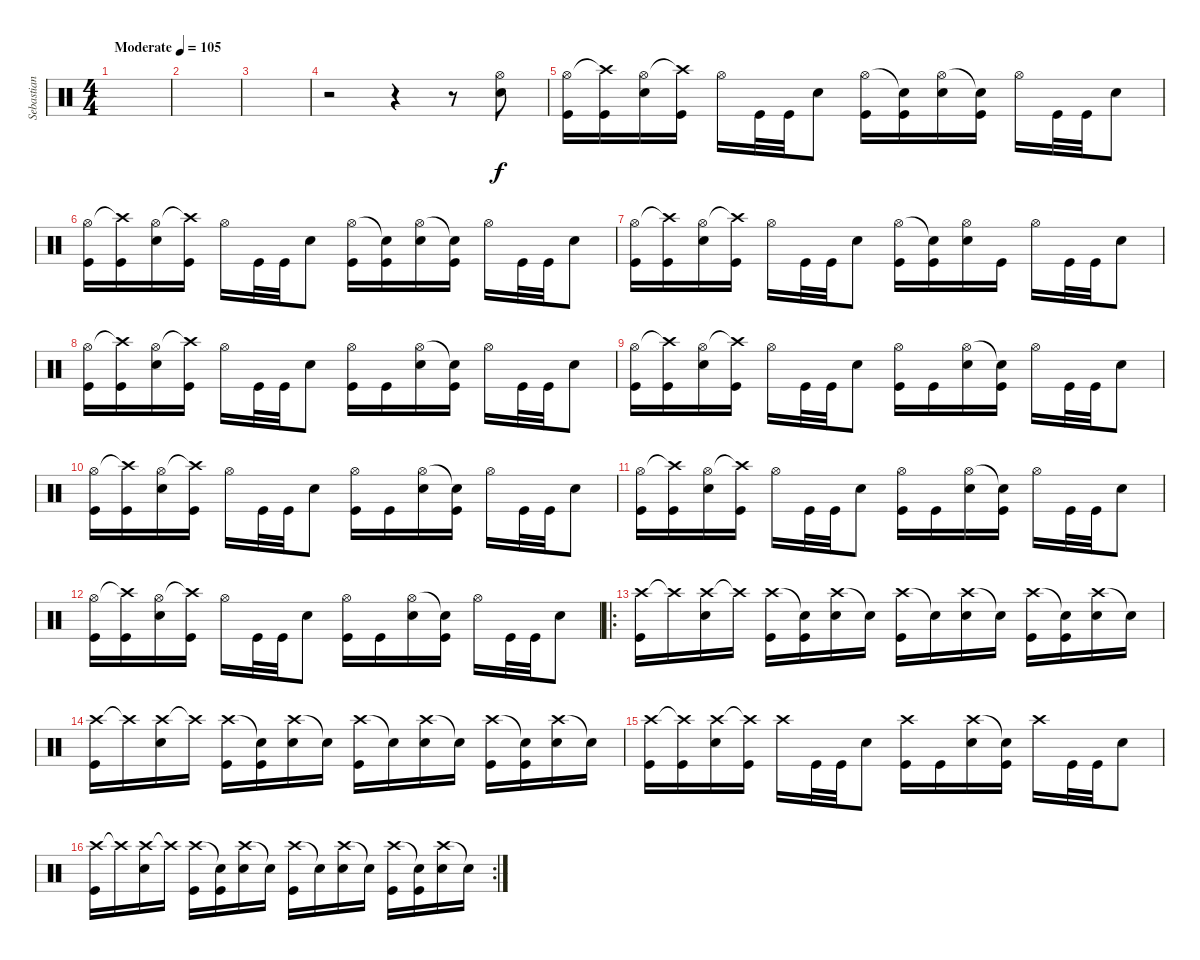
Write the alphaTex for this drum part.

\track ("Sebastian Grainger" "Sebastian ") {instrument percussion}
\staff {score}
\articulation defaults
\ts (4 4)
\tempo (105 "Moderate")
\clef neutral
\ks c
|
|
|
r.2 r.4 r.8 ("Hi-Hat (open)" "Snare (hit) 2").8 |
("Hi-Hat (open)" "Kick (hit)").16 ("Crash high (hit)"{t} "Kick (hit)").16 ("Hi-Hat (open)" "Snare (hit) 2").16 ("Crash high (hit)"{t} "Kick (hit)").16 "Hi-Hat (open)".16 "Kick (hit)".32 "Kick (hit)".32 "Snare (hit) 2".8 ("Hi-Hat (open)" "Kick (hit)").16 ("Snare (hit)"{t} "Kick (hit)").16 ("Hi-Hat (open)" "Snare (hit) 2").16 ("Snare (hit)"{t} "Kick (hit)").16 "Hi-Hat (open)".16 "Kick (hit)".32 "Kick (hit)".32 "Snare (hit) 2".8 |
("Hi-Hat (open)" "Kick (hit)").16 ("Crash high (hit)"{t} "Kick (hit)").16 ("Hi-Hat (open)" "Snare (hit) 2").16 ("Crash high (hit)"{t} "Kick (hit)").16 "Hi-Hat (open)".16 "Kick (hit)".32 "Kick (hit)".32 "Snare (hit) 2".8 ("Hi-Hat (open)" "Kick (hit)").16 ("Snare (hit)"{t} "Kick (hit)").16 ("Hi-Hat (open)" "Snare (hit) 2").16 ("Snare (hit)"{t} "Kick (hit)").16 "Hi-Hat (open)".16 "Kick (hit)".32 "Kick (hit)".32 "Snare (hit) 2".8 |
("Hi-Hat (open)" "Kick (hit)").16 ("Crash high (hit)"{t} "Kick (hit)").16 ("Hi-Hat (open)" "Snare (hit) 2").16 ("Crash high (hit)"{t} "Kick (hit)").16 "Hi-Hat (open)".16 "Kick (hit)".32 "Kick (hit)".32 "Snare (hit) 2".8 ("Hi-Hat (open)" "Kick (hit)").16 ("Snare (hit)"{t} "Kick (hit)").16 ("Hi-Hat (open)" "Snare (hit) 2").16 "Kick (hit)".16 "Hi-Hat (open)".16 "Kick (hit)".32 "Kick (hit)".32 "Snare (hit) 2".8 |
("Hi-Hat (open)" "Kick (hit)").16 ("Crash high (hit)"{t} "Kick (hit)").16 ("Hi-Hat (open)" "Snare (hit) 2").16 ("Crash high (hit)"{t} "Kick (hit)").16 "Hi-Hat (open)".16 "Kick (hit)".32 "Kick (hit)".32 "Snare (hit) 2".8 ("Hi-Hat (open)" "Kick (hit)").16 "Kick (hit)".16 ("Hi-Hat (open)" "Snare (hit) 2").16 ("Snare (hit)"{t} "Kick (hit)").16 "Hi-Hat (open)".16 "Kick (hit)".32 "Kick (hit)".32 "Snare (hit) 2".8 |
("Hi-Hat (open)" "Kick (hit)").16 ("Crash high (hit)"{t} "Kick (hit)").16 ("Hi-Hat (open)" "Snare (hit) 2").16 ("Crash high (hit)"{t} "Kick (hit)").16 "Hi-Hat (open)".16 "Kick (hit)".32 "Kick (hit)".32 "Snare (hit) 2".8 ("Hi-Hat (open)" "Kick (hit)").16 "Kick (hit)".16 ("Hi-Hat (open)" "Snare (hit) 2").16 ("Snare (hit)"{t} "Kick (hit)").16 "Hi-Hat (open)".16 "Kick (hit)".32 "Kick (hit)".32 "Snare (hit) 2".8 |
("Hi-Hat (open)" "Kick (hit)").16 ("Crash high (hit)"{t} "Kick (hit)").16 ("Hi-Hat (open)" "Snare (hit) 2").16 ("Crash high (hit)"{t} "Kick (hit)").16 "Hi-Hat (open)".16 "Kick (hit)".32 "Kick (hit)".32 "Snare (hit) 2".8 ("Hi-Hat (open)" "Kick (hit)").16 "Kick (hit)".16 ("Hi-Hat (open)" "Snare (hit) 2").16 ("Snare (hit)"{t} "Kick (hit)").16 "Hi-Hat (open)".16 "Kick (hit)".32 "Kick (hit)".32 "Snare (hit) 2".8 |
("Hi-Hat (open)" "Kick (hit)").16 ("Crash high (hit)"{t} "Kick (hit)").16 ("Hi-Hat (open)" "Snare (hit) 2").16 ("Crash high (hit)"{t} "Kick (hit)").16 "Hi-Hat (open)".16 "Kick (hit)".32 "Kick (hit)".32 "Snare (hit) 2".8 ("Hi-Hat (open)" "Kick (hit)").16 "Kick (hit)".16 ("Hi-Hat (open)" "Snare (hit) 2").16 ("Snare (hit)"{t} "Kick (hit)").16 "Hi-Hat (open)".16 "Kick (hit)".32 "Kick (hit)".32 "Snare (hit) 2".8 |
("Hi-Hat (open)" "Kick (hit)").16 ("Crash high (hit)"{t} "Kick (hit)").16 ("Hi-Hat (open)" "Snare (hit) 2").16 ("Crash high (hit)"{t} "Kick (hit)").16 "Hi-Hat (open)".16 "Kick (hit)".32 "Kick (hit)".32 "Snare (hit) 2".8 ("Hi-Hat (open)" "Kick (hit)").16 "Kick (hit)".16 ("Hi-Hat (open)" "Snare (hit) 2").16 ("Snare (hit)"{t} "Kick (hit)").16 "Hi-Hat (open)".16 "Kick (hit)".32 "Kick (hit)".32 "Snare (hit) 2".8 |
\ro
("Crash high (hit)" "Kick (hit)").16 "Crash high (hit)"{t}.16 ("Crash high (hit)" "Snare (hit) 2").16 "Crash high (hit)"{t}.16 ("Crash high (hit)" "Kick (hit)").16 ("Snare (hit)"{t} "Kick (hit)").16 ("Crash high (hit)" "Snare (hit) 2").16 "Snare (hit)"{t}.16 ("Crash high (hit)" "Kick (hit)").16 "Snare (hit)"{t}.16 ("Crash high (hit)" "Snare (hit) 2").16 "Snare (hit)"{t}.16 ("Crash high (hit)" "Kick (hit)").16 ("Snare (hit)"{t} "Kick (hit)").16 ("Crash high (hit)" "Snare (hit) 2").16 "Snare (hit)"{t}.16 |
("Crash high (hit)" "Kick (hit)").16 "Crash high (hit)"{t}.16 ("Crash high (hit)" "Snare (hit) 2").16 "Crash high (hit)"{t}.16 ("Crash high (hit)" "Kick (hit)").16 ("Snare (hit)"{t} "Kick (hit)").16 ("Crash high (hit)" "Snare (hit) 2").16 "Snare (hit)"{t}.16 ("Crash high (hit)" "Kick (hit)").16 "Snare (hit)"{t}.16 ("Crash high (hit)" "Snare (hit) 2").16 "Snare (hit)"{t}.16 ("Crash high (hit)" "Kick (hit)").16 ("Snare (hit)"{t} "Kick (hit)").16 ("Crash high (hit)" "Snare (hit) 2").16 "Snare (hit)"{t}.16 |
("Crash high (hit)" "Kick (hit)").16 ("Crash high (hit)"{t} "Kick (hit)").16 ("Crash high (hit)" "Snare (hit) 2").16 ("Crash high (hit)"{t} "Kick (hit)").16 "Crash high (hit)".16 "Kick (hit)".32 "Kick (hit)".32 "Snare (hit) 2".8 ("Crash high (hit)" "Kick (hit)").16 "Kick (hit)".16 ("Crash high (hit)" "Snare (hit) 2").16 ("Snare (hit)"{t} "Kick (hit)").16 "Crash high (hit)".16 "Kick (hit)".32 "Kick (hit)".32 "Snare (hit) 2".8 |
\rc 2
("Crash high (hit)" "Kick (hit)").16 "Crash high (hit)"{t}.16 ("Crash high (hit)" "Snare (hit) 2").16 "Crash high (hit)"{t}.16 ("Crash high (hit)" "Kick (hit)").16 ("Snare (hit)"{t} "Kick (hit)").16 ("Crash high (hit)" "Snare (hit) 2").16 "Snare (hit)"{t}.16 ("Crash high (hit)" "Kick (hit)").16 "Snare (hit)"{t}.16 ("Crash high (hit)" "Snare (hit) 2").16 "Snare (hit)"{t}.16 ("Crash high (hit)" "Kick (hit)").16 ("Snare (hit)"{t} "Kick (hit)").16 ("Crash high (hit)" "Snare (hit) 2").16 "Snare (hit)"{t}.16
